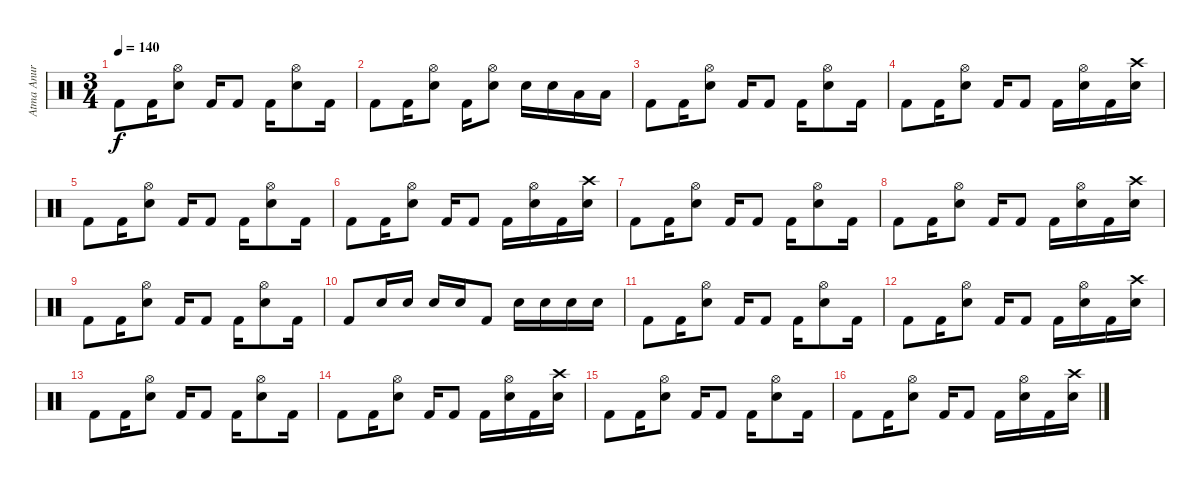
\track ("Atma Anur" "Atma Anur") {instrument percussion}
\staff {score}
\articulation defaults
\ts (3 4)
\tempo 140
\clef neutral
\ks c "Kick (hit) 2".8{dy f} "Kick (hit) 2".16
("Hi-Hat (open)" "Snare (hit) 2").8 "Kick (hit) 2".16 "Kick (hit) 2".8 "Kick (hit) 2".16 ("Hi-Hat (open)" "Snare (hit) 2").8 "Kick (hit) 2".16 |
"Kick (hit) 2".8 "Kick (hit) 2".16 ("Hi-Hat (open)" "Snare (hit) 2").8 "Kick (hit) 2".16 ("Hi-Hat (open)" "Snare (hit) 2").8 "Snare (hit) 2".16 "Snare (hit) 2".16 "Low Tom (hit)".16 "Low Tom (hit)".16 |
"Kick (hit) 2".8 "Kick (hit) 2".16 ("Hi-Hat (open)" "Snare (hit) 2").8 "Kick (hit) 2".16 "Kick (hit) 2".8 "Kick (hit) 2".16 ("Hi-Hat (open)" "Snare (hit) 2").8 "Kick (hit) 2".16 |
"Kick (hit) 2".8 "Kick (hit) 2".16 ("Hi-Hat (open)" "Snare (hit) 2").8 "Kick (hit) 2".16 "Kick (hit) 2".8 "Kick (hit) 2".16 ("Hi-Hat (open)" "Snare (hit) 2").16 "Kick (hit) 2".16 ("Crash high (hit)" "Snare (hit) 2").16 |
"Kick (hit) 2".8 "Kick (hit) 2".16 ("Hi-Hat (open)" "Snare (hit) 2").8 "Kick (hit) 2".16 "Kick (hit) 2".8 "Kick (hit) 2".16 ("Hi-Hat (open)" "Snare (hit) 2").8 "Kick (hit) 2".16 |
"Kick (hit) 2".8 "Kick (hit) 2".16 ("Hi-Hat (open)" "Snare (hit) 2").8 "Kick (hit) 2".16 "Kick (hit) 2".8 "Kick (hit) 2".16 ("Hi-Hat (open)" "Snare (hit) 2").16 "Kick (hit) 2".16 ("Crash high (hit)" "Snare (hit) 2").16 |
"Kick (hit) 2".8 "Kick (hit) 2".16 ("Hi-Hat (open)" "Snare (hit) 2").8 "Kick (hit) 2".16 "Kick (hit) 2".8 "Kick (hit) 2".16 ("Hi-Hat (open)" "Snare (hit) 2").8 "Kick (hit) 2".16 |
"Kick (hit) 2".8 "Kick (hit) 2".16 ("Hi-Hat (open)" "Snare (hit) 2").8 "Kick (hit) 2".16 "Kick (hit) 2".8 "Kick (hit) 2".16 ("Hi-Hat (open)" "Snare (hit) 2").16 "Kick (hit) 2".16 ("Crash high (hit)" "Snare (hit) 2").16 |
"Kick (hit) 2".8 "Kick (hit) 2".16 ("Hi-Hat (open)" "Snare (hit) 2").8 "Kick (hit) 2".16 "Kick (hit) 2".8 "Kick (hit) 2".16 ("Hi-Hat (open)" "Snare (hit) 2").8 "Kick (hit) 2".16 |
"Kick (hit) 2".8 "Snare (hit) 2".16 "Snare (hit) 2".16 "Snare (hit) 2".16 "Snare (hit) 2".16 "Kick (hit) 2".8 "Snare (hit) 2".16 "Snare (hit) 2".16 "Snare (hit) 2".16 "Snare (hit) 2".16 |
"Kick (hit) 2".8 "Kick (hit) 2".16 ("Hi-Hat (open)" "Snare (hit) 2").8 "Kick (hit) 2".16 "Kick (hit) 2".8 "Kick (hit) 2".16 ("Hi-Hat (open)" "Snare (hit) 2").8 "Kick (hit) 2".16 |
"Kick (hit) 2".8 "Kick (hit) 2".16 ("Hi-Hat (open)" "Snare (hit) 2").8 "Kick (hit) 2".16 "Kick (hit) 2".8 "Kick (hit) 2".16 ("Hi-Hat (open)" "Snare (hit) 2").16 "Kick (hit) 2".16 ("Crash high (hit)" "Snare (hit) 2").16 |
"Kick (hit) 2".8 "Kick (hit) 2".16 ("Hi-Hat (open)" "Snare (hit) 2").8 "Kick (hit) 2".16 "Kick (hit) 2".8 "Kick (hit) 2".16 ("Hi-Hat (open)" "Snare (hit) 2").8 "Kick (hit) 2".16 |
"Kick (hit) 2".8 "Kick (hit) 2".16 ("Hi-Hat (open)" "Snare (hit) 2").8 "Kick (hit) 2".16 "Kick (hit) 2".8 "Kick (hit) 2".16 ("Hi-Hat (open)" "Snare (hit) 2").16 "Kick (hit) 2".16 ("Crash high (hit)" "Snare (hit) 2").16 |
"Kick (hit) 2".8 "Kick (hit) 2".16 ("Hi-Hat (open)" "Snare (hit) 2").8 "Kick (hit) 2".16 "Kick (hit) 2".8 "Kick (hit) 2".16 ("Hi-Hat (open)" "Snare (hit) 2").8 "Kick (hit) 2".16 |
"Kick (hit) 2".8 "Kick (hit) 2".16 ("Hi-Hat (open)" "Snare (hit) 2").8 "Kick (hit) 2".16 "Kick (hit) 2".8 "Kick (hit) 2".16 ("Hi-Hat (open)" "Snare (hit) 2").16 "Kick (hit) 2".16 ("Crash high (hit)" "Snare (hit) 2").16
